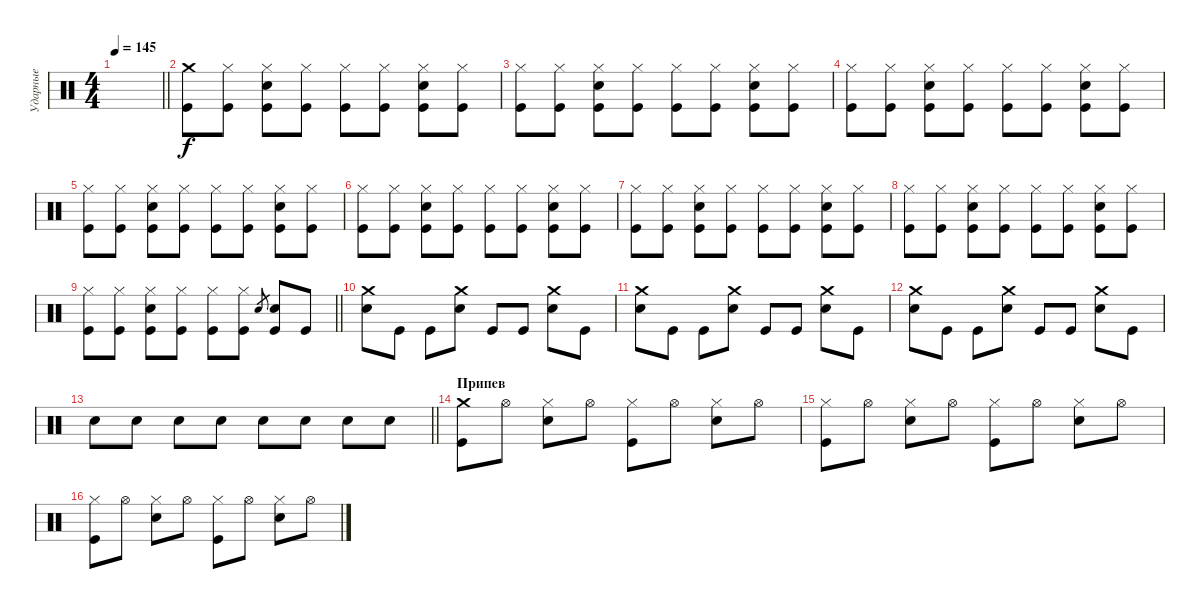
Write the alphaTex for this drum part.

\track ("Ударные" "Ударные") {instrument percussion}
\staff {score}
\articulation defaults
\ts (4 4)
\tempo 145
\clef neutral
\barLineRight lightlight
\ks c
|
\section ("" " ")
("Crash medium (hit)" "Kick (hit)").8 ("Hi-Hat (closed)" "Kick (hit)").8 ("Hi-Hat (closed)" "Electric Snare (hit)" "Kick (hit)").8 ("Hi-Hat (closed)" "Kick (hit)").8 ("Hi-Hat (closed)" "Kick (hit)").8 ("Hi-Hat (closed)" "Kick (hit)").8 ("Hi-Hat (closed)" "Electric Snare (hit)" "Kick (hit)").8 ("Hi-Hat (closed)" "Kick (hit)").8 |
("Hi-Hat (closed)" "Kick (hit)").8 ("Hi-Hat (closed)" "Kick (hit)").8 ("Hi-Hat (closed)" "Electric Snare (hit)" "Kick (hit)").8 ("Hi-Hat (closed)" "Kick (hit)").8 ("Hi-Hat (closed)" "Kick (hit)").8 ("Hi-Hat (closed)" "Kick (hit)").8 ("Hi-Hat (closed)" "Electric Snare (hit)" "Kick (hit)").8 ("Hi-Hat (closed)" "Kick (hit)").8 |
("Hi-Hat (closed)" "Kick (hit)").8 ("Hi-Hat (closed)" "Kick (hit)").8 ("Hi-Hat (closed)" "Electric Snare (hit)" "Kick (hit)").8 ("Hi-Hat (closed)" "Kick (hit)").8 ("Hi-Hat (closed)" "Kick (hit)").8 ("Hi-Hat (closed)" "Kick (hit)").8 ("Hi-Hat (closed)" "Electric Snare (hit)" "Kick (hit)").8 ("Hi-Hat (closed)" "Kick (hit)").8 |
("Hi-Hat (closed)" "Kick (hit)").8 ("Hi-Hat (closed)" "Kick (hit)").8 ("Hi-Hat (closed)" "Electric Snare (hit)" "Kick (hit)").8 ("Hi-Hat (closed)" "Kick (hit)").8 ("Hi-Hat (closed)" "Kick (hit)").8 ("Hi-Hat (closed)" "Kick (hit)").8 ("Hi-Hat (closed)" "Electric Snare (hit)" "Kick (hit)").8 ("Hi-Hat (closed)" "Kick (hit)").8 |
("Hi-Hat (closed)" "Kick (hit)").8 ("Hi-Hat (closed)" "Kick (hit)").8 ("Hi-Hat (closed)" "Electric Snare (hit)" "Kick (hit)").8 ("Hi-Hat (closed)" "Kick (hit)").8 ("Hi-Hat (closed)" "Kick (hit)").8 ("Hi-Hat (closed)" "Kick (hit)").8 ("Hi-Hat (closed)" "Electric Snare (hit)" "Kick (hit)").8 ("Hi-Hat (closed)" "Kick (hit)").8 |
("Hi-Hat (closed)" "Kick (hit)").8 ("Hi-Hat (closed)" "Kick (hit)").8 ("Hi-Hat (closed)" "Electric Snare (hit)" "Kick (hit)").8 ("Hi-Hat (closed)" "Kick (hit)").8 ("Hi-Hat (closed)" "Kick (hit)").8 ("Hi-Hat (closed)" "Kick (hit)").8 ("Hi-Hat (closed)" "Electric Snare (hit)" "Kick (hit)").8 ("Hi-Hat (closed)" "Kick (hit)").8 |
("Hi-Hat (closed)" "Kick (hit)").8 ("Hi-Hat (closed)" "Kick (hit)").8 ("Hi-Hat (closed)" "Electric Snare (hit)" "Kick (hit)").8 ("Hi-Hat (closed)" "Kick (hit)").8 ("Hi-Hat (closed)" "Kick (hit)").8 ("Hi-Hat (closed)" "Kick (hit)").8 ("Hi-Hat (closed)" "Electric Snare (hit)" "Kick (hit)").8 ("Hi-Hat (closed)" "Kick (hit)").8 |
\barLineRight lightlight
("Hi-Hat (closed)" "Kick (hit)").8 ("Hi-Hat (closed)" "Kick (hit)").8 ("Hi-Hat (closed)" "Electric Snare (hit)" "Kick (hit)").8 ("Hi-Hat (closed)" "Kick (hit)").8 ("Hi-Hat (closed)" "Kick (hit)").8 ("Hi-Hat (closed)" "Kick (hit)").8 "Electric Snare (hit)".8{gr} ("Electric Snare (hit)" "Kick (hit)").8 "Kick (hit)".8 |
\section ("" " ")
("Crash medium (hit)" "Electric Snare (hit)").8 "Kick (hit)".8 "Kick (hit)".8 ("Crash medium (hit)" "Electric Snare (hit)").8 "Kick (hit)".8 "Kick (hit)".8 ("Crash medium (hit)" "Electric Snare (hit)").8 "Kick (hit)".8 |
("Crash medium (hit)" "Electric Snare (hit)").8 "Kick (hit)".8 "Kick (hit)".8 ("Crash medium (hit)" "Electric Snare (hit)").8 "Kick (hit)".8 "Kick (hit)".8 ("Crash medium (hit)" "Electric Snare (hit)").8 "Kick (hit)".8 |
("Crash medium (hit)" "Electric Snare (hit)").8 "Kick (hit)".8 "Kick (hit)".8 ("Crash medium (hit)" "Electric Snare (hit)").8 "Kick (hit)".8 "Kick (hit)".8 ("Crash medium (hit)" "Electric Snare (hit)").8 "Kick (hit)".8 |
\barLineRight lightlight "Electric Snare (hit)".8 "Electric Snare (hit)".8 "Electric Snare (hit)".8 "Electric Snare (hit)".8 "Electric Snare (hit)".8 "Electric Snare (hit)".8 "Electric Snare (hit)".8 "Electric Snare (hit)".8
|
\section ("" "Припев")
("Crash medium (hit)" "Kick (hit)").8 "Hi-Hat (open)".8 ("Hi-Hat (closed)" "Electric Snare (hit)").8 "Hi-Hat (open)".8 ("Hi-Hat (closed)" "Kick (hit)").8 "Hi-Hat (open)".8 ("Hi-Hat (closed)" "Electric Snare (hit)").8 "Hi-Hat (open)".8 |
("Hi-Hat (closed)" "Kick (hit)").8 "Hi-Hat (open)".8 ("Hi-Hat (closed)" "Electric Snare (hit)").8 "Hi-Hat (open)".8 ("Hi-Hat (closed)" "Kick (hit)").8 "Hi-Hat (open)".8 ("Hi-Hat (closed)" "Electric Snare (hit)").8 "Hi-Hat (open)".8 |
("Hi-Hat (closed)" "Kick (hit)").8 "Hi-Hat (open)".8 ("Hi-Hat (closed)" "Electric Snare (hit)").8 "Hi-Hat (open)".8 ("Hi-Hat (closed)" "Kick (hit)").8 "Hi-Hat (open)".8 ("Hi-Hat (closed)" "Electric Snare (hit)").8 "Hi-Hat (open)".8
